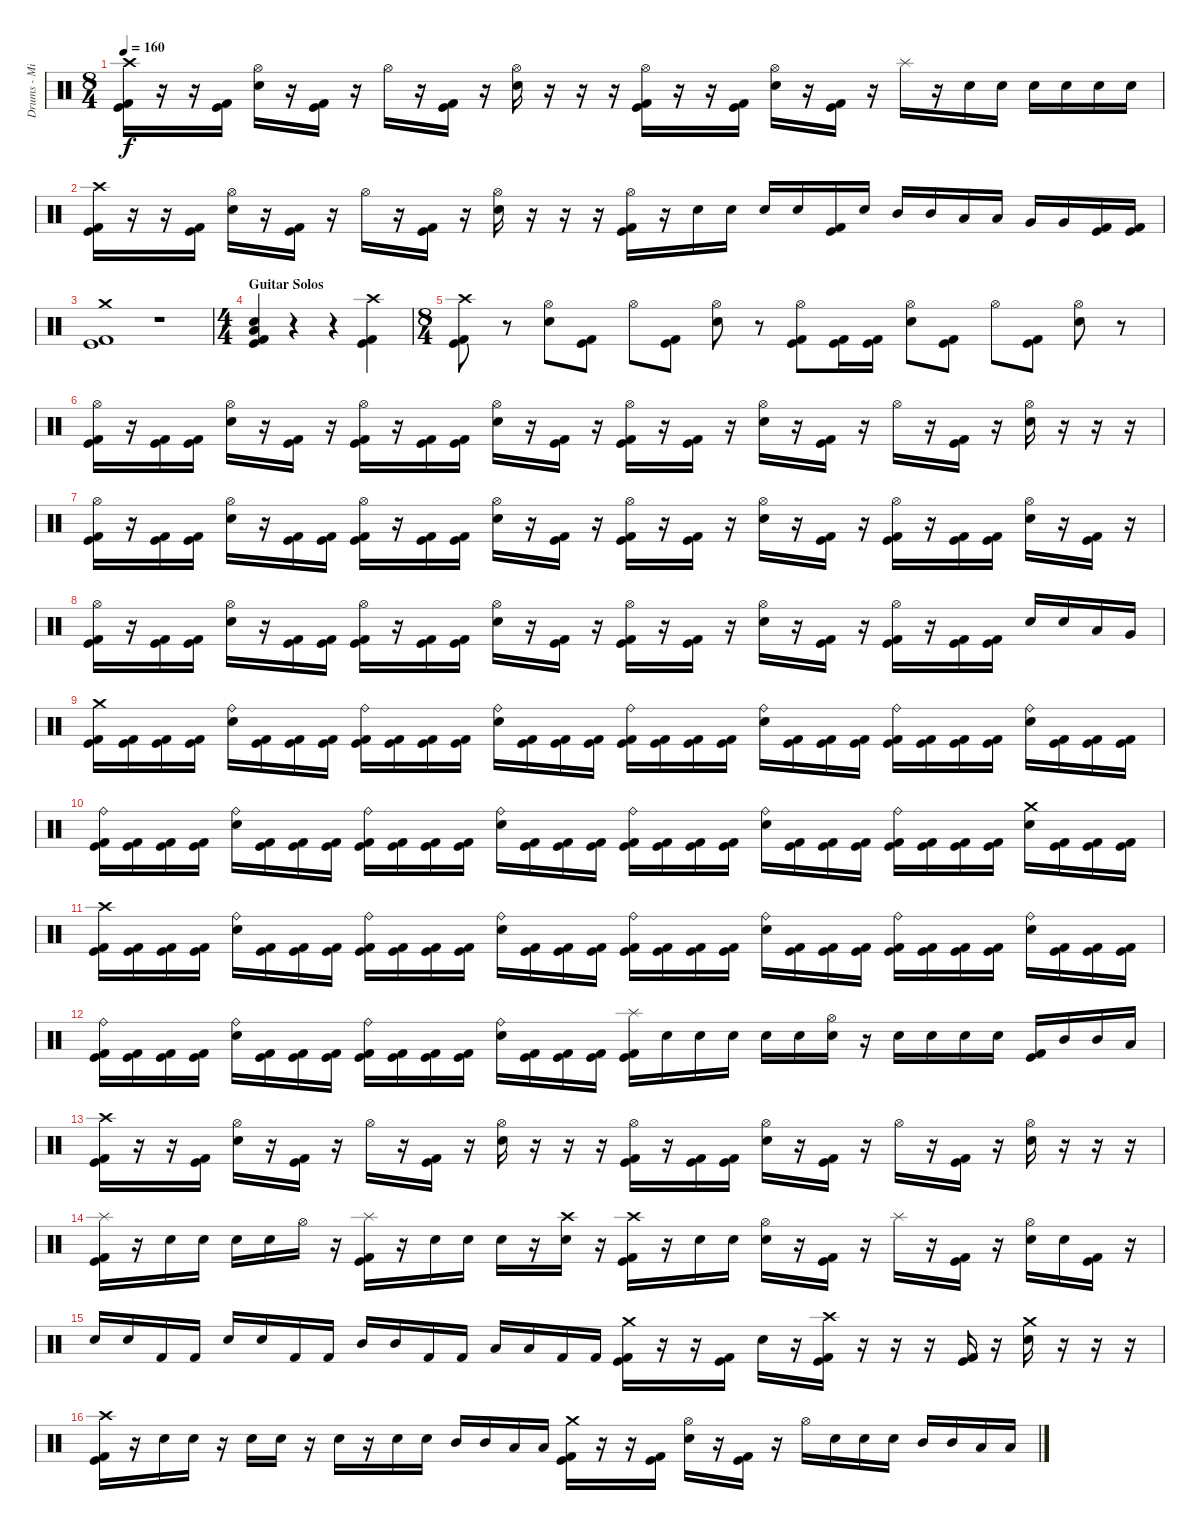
\track ("Drums - Mikkey Dee" "Drums - Mi") {instrument percussion}
\staff {score}
\articulation defaults
\ts (8 4)
\tempo 160
\clef neutral
\ks c
("Crash high (hit)" "Kick (hit) 2" "Kick (hit)").16{dy f} r.16 r.16 ("Kick (hit) 2" "Kick (hit)").16 ("Hi-Hat (open)" "Electric Snare (hit)").16 r.16 ("Kick (hit) 2" "Kick (hit)").16 r.16 "Hi-Hat (open)".16 r.16 ("Kick (hit) 2" "Kick (hit)").16 r.16 ("Hi-Hat (open)" "Electric Snare (hit)").16 r.16 r.16 r.16 ("Hi-Hat (open)" "Kick (hit) 2" "Kick (hit)").16 r.16 r.16 ("Kick (hit) 2" "Kick (hit)").16 ("Hi-Hat (open)" "Electric Snare (hit)").16 r.16 ("Kick (hit) 2" "Kick (hit)").16 r.16 "Splash (hit)".16 r.16 "Electric Snare (hit)".16 "Electric Snare (hit)".16 "Electric Snare (hit)".16 "Electric Snare (hit)".16 "Electric Snare (hit)".16 "Electric Snare (hit)".16 |
("Crash high (hit)" "Kick (hit) 2" "Kick (hit)").16 r.16 r.16 ("Kick (hit) 2" "Kick (hit)").16 ("Hi-Hat (open)" "Electric Snare (hit)").16 r.16 ("Kick (hit) 2" "Kick (hit)").16 r.16 "Hi-Hat (open)".16 r.16 ("Kick (hit) 2" "Kick (hit)").16 r.16 ("Hi-Hat (open)" "Electric Snare (hit)").16 r.16 r.16 r.16 ("Hi-Hat (open)" "Kick (hit) 2" "Kick (hit)").16 r.16 "Electric Snare (hit)".16 "Electric Snare (hit)".16 "Electric Snare (hit)".16 "Electric Snare (hit)".16 ("Kick (hit) 2" "Kick (hit)").16 "Electric Snare (hit)".16 "Mid Tom (hit)".16 "Mid Tom (hit)".16 "Low Tom (hit)".16 "Low Tom (hit)".16 "Very Low Tom (hit)".16 "Very Low Tom (hit)".16 ("Kick (hit) 2" "Kick (hit)").16 ("Kick (hit) 2" "Kick (hit)").16 |
("Crash medium (hit)" "Kick (hit) 2" "Kick (hit)").1 r.1 |
\ts (4 4)
\section ("" "Guitar Solos")
("Electric Snare (hit)" "Low Floor Tom (hit)" "Kick (hit) 2" "Kick (hit)").4 r.4 r.4 ("Crash high (hit)" "Kick (hit) 2" "Kick (hit)").4 |
\ts (8 4)
("Crash high (hit)" "Kick (hit) 2" "Kick (hit)").8 r.8 ("Hi-Hat (open)" "Electric Snare (hit)").8 ("Kick (hit) 2" "Kick (hit)").8 "Hi-Hat (open)".8 ("Kick (hit) 2" "Kick (hit)").8 ("Hi-Hat (open)" "Electric Snare (hit)").8 r.8 ("Hi-Hat (open)" "Kick (hit) 2" "Kick (hit)").8 ("Kick (hit) 2" "Kick (hit)").16 ("Kick (hit) 2" "Kick (hit)").16 ("Hi-Hat (open)" "Electric Snare (hit)").8 ("Kick (hit) 2" "Kick (hit)").8 "Hi-Hat (open)".8 ("Kick (hit) 2" "Kick (hit)").8 ("Hi-Hat (open)" "Electric Snare (hit)").8 r.8 |
("Hi-Hat (open)" "Kick (hit) 2" "Kick (hit)").16 r.16 ("Kick (hit) 2" "Kick (hit)").16 ("Kick (hit) 2" "Kick (hit)").16 ("Hi-Hat (open)" "Electric Snare (hit)").16 r.16 ("Kick (hit) 2" "Kick (hit)").16 r.16 ("Hi-Hat (open)" "Kick (hit) 2" "Kick (hit)").16 r.16 ("Kick (hit) 2" "Kick (hit)").16 ("Kick (hit) 2" "Kick (hit)").16 ("Hi-Hat (open)" "Electric Snare (hit)").16 r.16 ("Kick (hit) 2" "Kick (hit)").16 r.16 ("Hi-Hat (open)" "Kick (hit) 2" "Kick (hit)").16 r.16 ("Kick (hit) 2" "Kick (hit)").16 r.16 ("Hi-Hat (open)" "Electric Snare (hit)").16 r.16 ("Kick (hit) 2" "Kick (hit)").16 r.16 "Hi-Hat (open)".16 r.16 ("Kick (hit) 2" "Kick (hit)").16 r.16 ("Hi-Hat (open)" "Electric Snare (hit)").16 r.16 r.16 r.16 |
("Hi-Hat (open)" "Kick (hit) 2" "Kick (hit)").16 r.16 ("Kick (hit) 2" "Kick (hit)").16 ("Kick (hit) 2" "Kick (hit)").16 ("Hi-Hat (open)" "Electric Snare (hit)").16 r.16 ("Kick (hit) 2" "Kick (hit)").16 ("Kick (hit) 2" "Kick (hit)").16 ("Hi-Hat (open)" "Kick (hit) 2" "Kick (hit)").16 r.16 ("Kick (hit) 2" "Kick (hit)").16 ("Kick (hit) 2" "Kick (hit)").16 ("Hi-Hat (open)" "Electric Snare (hit)").16 r.16 ("Kick (hit) 2" "Kick (hit)").16 r.16 ("Hi-Hat (open)" "Kick (hit) 2" "Kick (hit)").16 r.16 ("Kick (hit) 2" "Kick (hit)").16 r.16 ("Hi-Hat (open)" "Electric Snare (hit)").16 r.16 ("Kick (hit) 2" "Kick (hit)").16 r.16 ("Hi-Hat (open)" "Kick (hit) 2" "Kick (hit)").16 r.16 ("Kick (hit) 2" "Kick (hit)").16 ("Kick (hit) 2" "Kick (hit)").16 ("Hi-Hat (open)" "Electric Snare (hit)").16 r.16 ("Kick (hit) 2" "Kick (hit)").16 r.16 |
("Hi-Hat (open)" "Kick (hit) 2" "Kick (hit)").16 r.16 ("Kick (hit) 2" "Kick (hit)").16 ("Kick (hit) 2" "Kick (hit)").16 ("Hi-Hat (open)" "Electric Snare (hit)").16 r.16 ("Kick (hit) 2" "Kick (hit)").16 ("Kick (hit) 2" "Kick (hit)").16 ("Hi-Hat (open)" "Kick (hit) 2" "Kick (hit)").16 r.16 ("Kick (hit) 2" "Kick (hit)").16 ("Kick (hit) 2" "Kick (hit)").16 ("Hi-Hat (open)" "Electric Snare (hit)").16 r.16 ("Kick (hit) 2" "Kick (hit)").16 r.16 ("Hi-Hat (open)" "Kick (hit) 2" "Kick (hit)").16 r.16 ("Kick (hit) 2" "Kick (hit)").16 r.16 ("Hi-Hat (open)" "Electric Snare (hit)").16 r.16 ("Kick (hit) 2" "Kick (hit)").16 r.16 ("Hi-Hat (open)" "Kick (hit) 2" "Kick (hit)").16 r.16 ("Kick (hit) 2" "Kick (hit)").16 ("Kick (hit) 2" "Kick (hit)").16 "Electric Snare (hit)".16 "Electric Snare (hit)".16 "Low Tom (hit)".16 "Very Low Tom (hit)".16 |
("Crash medium (hit)" "Kick (hit)" "Kick (hit) 2").16 ("Kick (hit)" "Kick (hit) 2").16 ("Kick (hit)" "Kick (hit) 2").16 ("Kick (hit)" "Kick (hit) 2").16 ("Ride (bell)" "Electric Snare (hit)").16 ("Kick (hit)" "Kick (hit) 2").16 ("Kick (hit)" "Kick (hit) 2").16 ("Kick (hit)" "Kick (hit) 2").16 ("Ride (bell)" "Kick (hit)" "Kick (hit) 2").16 ("Kick (hit)" "Kick (hit) 2").16 ("Kick (hit)" "Kick (hit) 2").16 ("Kick (hit)" "Kick (hit) 2").16 ("Ride (bell)" "Electric Snare (hit)").16 ("Kick (hit)" "Kick (hit) 2").16 ("Kick (hit)" "Kick (hit) 2").16 ("Kick (hit)" "Kick (hit) 2").16 ("Ride (bell)" "Kick (hit)" "Kick (hit) 2").16 ("Kick (hit)" "Kick (hit) 2").16 ("Kick (hit)" "Kick (hit) 2").16 ("Kick (hit)" "Kick (hit) 2").16 ("Ride (bell)" "Electric Snare (hit)").16 ("Kick (hit)" "Kick (hit) 2").16 ("Kick (hit)" "Kick (hit) 2").16 ("Kick (hit)" "Kick (hit) 2").16 ("Ride (bell)" "Kick (hit)" "Kick (hit) 2").16 ("Kick (hit)" "Kick (hit) 2").16 ("Kick (hit)" "Kick (hit) 2").16 ("Kick (hit)" "Kick (hit) 2").16 ("Ride (bell)" "Electric Snare (hit)").16 ("Kick (hit)" "Kick (hit) 2").16 ("Kick (hit)" "Kick (hit) 2").16 ("Kick (hit)" "Kick (hit) 2").16 |
("Ride (bell)" "Kick (hit)" "Kick (hit) 2").16 ("Kick (hit)" "Kick (hit) 2").16 ("Kick (hit)" "Kick (hit) 2").16 ("Kick (hit)" "Kick (hit) 2").16 ("Ride (bell)" "Electric Snare (hit)").16 ("Kick (hit)" "Kick (hit) 2").16 ("Kick (hit)" "Kick (hit) 2").16 ("Kick (hit)" "Kick (hit) 2").16 ("Ride (bell)" "Kick (hit)" "Kick (hit) 2").16 ("Kick (hit)" "Kick (hit) 2").16 ("Kick (hit)" "Kick (hit) 2").16 ("Kick (hit)" "Kick (hit) 2").16 ("Ride (bell)" "Electric Snare (hit)").16 ("Kick (hit)" "Kick (hit) 2").16 ("Kick (hit)" "Kick (hit) 2").16 ("Kick (hit)" "Kick (hit) 2").16 ("Ride (bell)" "Kick (hit)" "Kick (hit) 2").16 ("Kick (hit)" "Kick (hit) 2").16 ("Kick (hit)" "Kick (hit) 2").16 ("Kick (hit)" "Kick (hit) 2").16 ("Ride (bell)" "Electric Snare (hit)").16 ("Kick (hit)" "Kick (hit) 2").16 ("Kick (hit)" "Kick (hit) 2").16 ("Kick (hit)" "Kick (hit) 2").16 ("Ride (bell)" "Kick (hit)" "Kick (hit) 2").16 ("Kick (hit)" "Kick (hit) 2").16 ("Kick (hit)" "Kick (hit) 2").16 ("Kick (hit)" "Kick (hit) 2").16 ("Crash medium (hit)" "Electric Snare (hit)").16 ("Kick (hit)" "Kick (hit) 2").16 ("Kick (hit)" "Kick (hit) 2").16 ("Kick (hit)" "Kick (hit) 2").16 |
("Crash high (hit)" "Kick (hit)" "Kick (hit) 2").16 ("Kick (hit)" "Kick (hit) 2").16 ("Kick (hit)" "Kick (hit) 2").16 ("Kick (hit)" "Kick (hit) 2").16 ("Ride (bell)" "Electric Snare (hit)").16 ("Kick (hit)" "Kick (hit) 2").16 ("Kick (hit)" "Kick (hit) 2").16 ("Kick (hit)" "Kick (hit) 2").16 ("Ride (bell)" "Kick (hit)" "Kick (hit) 2").16 ("Kick (hit)" "Kick (hit) 2").16 ("Kick (hit)" "Kick (hit) 2").16 ("Kick (hit)" "Kick (hit) 2").16 ("Ride (bell)" "Electric Snare (hit)").16 ("Kick (hit)" "Kick (hit) 2").16 ("Kick (hit)" "Kick (hit) 2").16 ("Kick (hit)" "Kick (hit) 2").16 ("Ride (bell)" "Kick (hit)" "Kick (hit) 2").16 ("Kick (hit)" "Kick (hit) 2").16 ("Kick (hit)" "Kick (hit) 2").16 ("Kick (hit)" "Kick (hit) 2").16 ("Ride (bell)" "Electric Snare (hit)").16 ("Kick (hit)" "Kick (hit) 2").16 ("Kick (hit)" "Kick (hit) 2").16 ("Kick (hit)" "Kick (hit) 2").16 ("Ride (bell)" "Kick (hit)" "Kick (hit) 2").16 ("Kick (hit)" "Kick (hit) 2").16 ("Kick (hit)" "Kick (hit) 2").16 ("Kick (hit)" "Kick (hit) 2").16 ("Ride (bell)" "Electric Snare (hit)").16 ("Kick (hit)" "Kick (hit) 2").16 ("Kick (hit)" "Kick (hit) 2").16 ("Kick (hit)" "Kick (hit) 2").16 |
("Ride (bell)" "Kick (hit)" "Kick (hit) 2").16 ("Kick (hit)" "Kick (hit) 2").16 ("Kick (hit)" "Kick (hit) 2").16 ("Kick (hit)" "Kick (hit) 2").16 ("Ride (bell)" "Electric Snare (hit)").16 ("Kick (hit)" "Kick (hit) 2").16 ("Kick (hit)" "Kick (hit) 2").16 ("Kick (hit)" "Kick (hit) 2").16 ("Ride (bell)" "Kick (hit)" "Kick (hit) 2").16 ("Kick (hit)" "Kick (hit) 2").16 ("Kick (hit)" "Kick (hit) 2").16 ("Kick (hit)" "Kick (hit) 2").16 ("Ride (bell)" "Electric Snare (hit)").16 ("Kick (hit)" "Kick (hit) 2").16 ("Kick (hit)" "Kick (hit) 2").16 ("Kick (hit)" "Kick (hit) 2").16 ("Splash (hit)" "Kick (hit) 2" "Kick (hit)").16 "Electric Snare (hit)".16 "Electric Snare (hit)".16 "Electric Snare (hit)".16 "Electric Snare (hit)".16 "Electric Snare (hit)".16 ("Hi-Hat (open)" "Electric Snare (hit)").16 r.16 "Electric Snare (hit)".16 "Electric Snare (hit)".16 "Electric Snare (hit)".16 "Electric Snare (hit)".16 ("Kick (hit) 2" "Kick (hit)").16 "Mid Tom (hit)".16 "Mid Tom (hit)".16 "Low Tom (hit)".16 |
("Crash high (hit)" "Kick (hit) 2" "Kick (hit)").16 r.16 r.16 ("Kick (hit) 2" "Kick (hit)").16 ("Hi-Hat (open)" "Electric Snare (hit)").16 r.16 ("Kick (hit) 2" "Kick (hit)").16 r.16 "Hi-Hat (open)".16 r.16 ("Kick (hit) 2" "Kick (hit)").16 r.16 ("Hi-Hat (open)" "Electric Snare (hit)").16 r.16 r.16 r.16 ("Hi-Hat (open)" "Kick (hit) 2" "Kick (hit)").16 r.16 ("Kick (hit) 2" "Kick (hit)").16 ("Kick (hit) 2" "Kick (hit)").16 ("Hi-Hat (open)" "Electric Snare (hit)").16 r.16 ("Kick (hit) 2" "Kick (hit)").16 r.16 "Hi-Hat (open)".16 r.16 ("Kick (hit) 2" "Kick (hit)").16 r.16 ("Hi-Hat (open)" "Electric Snare (hit)").16 r.16 r.16 r.16 |
("Splash (hit)" "Kick (hit) 2" "Kick (hit)").16 r.16 "Electric Snare (hit)".16 "Electric Snare (hit)".16 "Electric Snare (hit)".16 "Electric Snare (hit)".16 "Hi-Hat (open)".16 r.16 ("Splash (hit)" "Kick (hit) 2" "Kick (hit)").16 r.16 "Electric Snare (hit)".16 "Electric Snare (hit)".16 "Electric Snare (hit)".16 r.16 ("Crash high (hit)" "Electric Snare (hit)").16 r.16 ("Crash high (hit)" "Kick (hit) 2" "Kick (hit)").16 r.16 "Electric Snare (hit)".16 "Electric Snare (hit)".16 ("Hi-Hat (open)" "Electric Snare (hit)").16 r.16 ("Kick (hit) 2" "Kick (hit)").16 r.16 "Splash (hit)".16 r.16 ("Kick (hit) 2" "Kick (hit)").16 r.16 ("Hi-Hat (open)" "Electric Snare (hit)").16 "Electric Snare (hit)".16 ("Kick (hit) 2" "Kick (hit)").16 r.16 |
"Electric Snare (hit)".16 "Electric Snare (hit)".16 "Kick (hit) 2".16 "Kick (hit) 2".16 "Electric Snare (hit)".16 "Electric Snare (hit)".16 "Kick (hit) 2".16 "Kick (hit) 2".16 "Mid Tom (hit)".16 "Mid Tom (hit)".16 "Kick (hit) 2".16 "Kick (hit) 2".16 "Low Tom (hit)".16 "Low Tom (hit)".16 "Kick (hit) 2".16 "Kick (hit) 2".16 ("Crash medium (hit)" "Kick (hit)" "Kick (hit) 2").16 r.16 r.16 ("Kick (hit) 2" "Kick (hit)").16 "Electric Snare (hit)".16 r.16 ("Crash high (hit)" "Kick (hit) 2" "Kick (hit)").16 r.16 r.16 r.16 ("Kick (hit) 2" "Kick (hit)").16 r.16 ("Crash medium (hit)" "Electric Snare (hit)").16 r.16 r.16 r.16 |
("Crash high (hit)" "Kick (hit) 2" "Kick (hit)").16 r.16 "Electric Snare (hit)".16 "Electric Snare (hit)".16 r.16 "Electric Snare (hit)".16 "Electric Snare (hit)".16 r.16 "Electric Snare (hit)".16 r.16 "Electric Snare (hit)".16 "Electric Snare (hit)".16 "Mid Tom (hit)".16 "Mid Tom (hit)".16 "Low Tom (hit)".16 "Low Tom (hit)".16 ("Crash medium (hit)" "Kick (hit)" "Kick (hit) 2").16 r.16 r.16 ("Kick (hit)" "Kick (hit) 2").16 ("Hi-Hat (open)" "Electric Snare (hit)").16 r.16 ("Kick (hit) 2" "Kick (hit)").16 r.16 "Hi-Hat (open)".16 "Electric Snare (hit)".16 "Electric Snare (hit)".16 "Electric Snare (hit)".16 "Mid Tom (hit)".16 "Mid Tom (hit)".16 "Low Tom (hit)".16 "Low Tom (hit)".16
